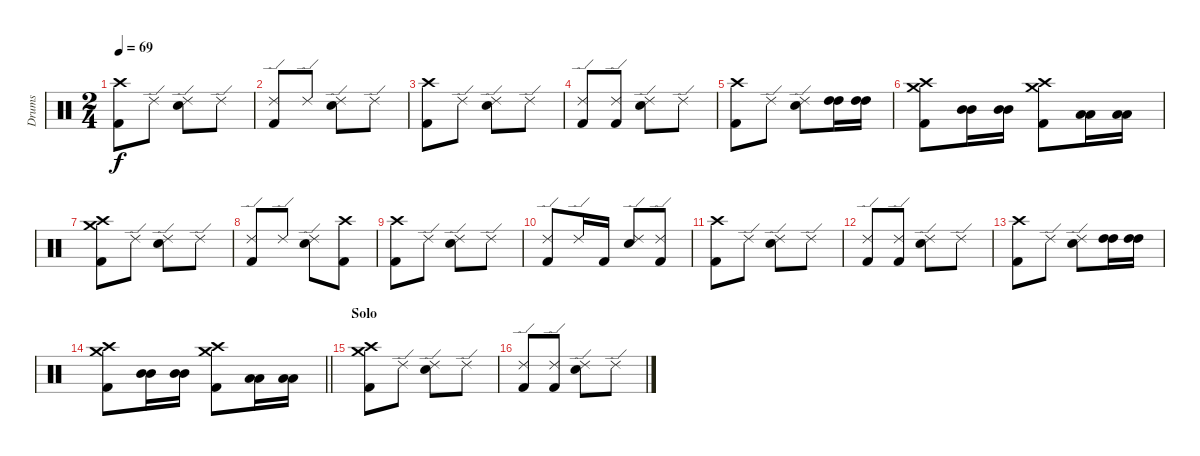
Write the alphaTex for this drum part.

\track ("Drums" "Drums") {instrument percussion}
\staff {score}
\articulation defaults
\ts (2 4)
\tempo 69
\clef neutral
\ks c
("Kick (hit) 2" "Crash high (hit)").8{dy f} "Ride (edge) 2".8 ("Electric Snare (hit)" "Ride (edge) 2").8 "Ride (edge) 2".8 |
("Kick (hit) 2" "Ride (edge) 2").8 "Ride (edge) 2".8 ("Electric Snare (hit)" "Ride (edge) 2").8 "Ride (edge) 2".8 |
("Kick (hit) 2" "Crash high (hit)").8 "Ride (edge) 2".8 ("Electric Snare (hit)" "Ride (edge) 2").8 "Ride (edge) 2".8 |
("Kick (hit) 2" "Ride (edge) 2").8 ("Kick (hit) 2" "Ride (edge) 2").8 ("Electric Snare (hit)" "Ride (edge) 2").8 "Ride (edge) 2".8 |
("Kick (hit) 2" "Crash high (hit)").8 "Ride (edge) 2".8 ("Electric Snare (hit)" "Ride (edge) 2").8 ("High Tom (hit)" "High Tom (hit)").16 ("High Tom (hit)" "High Tom (hit)").16 |
("Kick (hit) 2" "Crash high (hit)" "Crash medium (hit)").8 ("Mid Tom (hit)" "Mid Tom (hit)").16 ("Mid Tom (hit)" "Mid Tom (hit)").16 ("Kick (hit) 2" "Crash high (hit)" "Crash medium (hit)").8 ("Low Tom (hit)" "Low Tom (hit)").16 ("Low Tom (hit)" "Low Tom (hit)").16 |
("Kick (hit) 2" "Crash high (hit)" "Crash medium (hit)").8 "Ride (edge) 2".8 ("Electric Snare (hit)" "Ride (edge) 2").8 "Ride (edge) 2".8 |
("Kick (hit) 2" "Ride (edge) 2").8 "Ride (edge) 2".8 ("Electric Snare (hit)" "Ride (edge) 2").8 ("Kick (hit) 2" "Crash high (hit)").8 |
("Kick (hit) 2" "Crash high (hit)").8 "Ride (edge) 2".8 ("Electric Snare (hit)" "Ride (edge) 2").8 "Ride (edge) 2".8 |
("Kick (hit) 2" "Ride (edge) 2").8 "Ride (edge) 2".16 "Kick (hit) 2".16 ("Electric Snare (hit)" "Ride (edge) 2").8 ("Kick (hit) 2" "Ride (edge) 2").8 |
("Kick (hit) 2" "Crash high (hit)").8 "Ride (edge) 2".8 ("Electric Snare (hit)" "Ride (edge) 2").8 "Ride (edge) 2".8 |
("Kick (hit) 2" "Ride (edge) 2").8 ("Kick (hit) 2" "Ride (edge) 2").8 ("Electric Snare (hit)" "Ride (edge) 2").8 "Ride (edge) 2".8 |
("Kick (hit) 2" "Crash high (hit)").8 "Ride (edge) 2".8 ("Electric Snare (hit)" "Ride (edge) 2").8 ("High Tom (hit)" "High Tom (hit)").16 ("High Tom (hit)" "High Tom (hit)").16 |
\barLineRight lightlight
("Kick (hit) 2" "Crash high (hit)" "Crash medium (hit)").8 ("Mid Tom (hit)" "Mid Tom (hit)").16 ("Mid Tom (hit)" "Mid Tom (hit)").16 ("Kick (hit) 2" "Crash high (hit)" "Crash medium (hit)").8 ("Low Tom (hit)" "Low Tom (hit)").16 ("Low Tom (hit)" "Low Tom (hit)").16 |
\section ("" "Solo")
("Kick (hit) 2" "Crash high (hit)" "Crash medium (hit)").8 "Ride (edge) 2".8 ("Electric Snare (hit)" "Ride (edge) 2").8 "Ride (edge) 2".8 |
("Kick (hit) 2" "Ride (edge) 2").8 ("Kick (hit) 2" "Ride (edge) 2").8 ("Electric Snare (hit)" "Ride (edge) 2").8 "Ride (edge) 2".8
